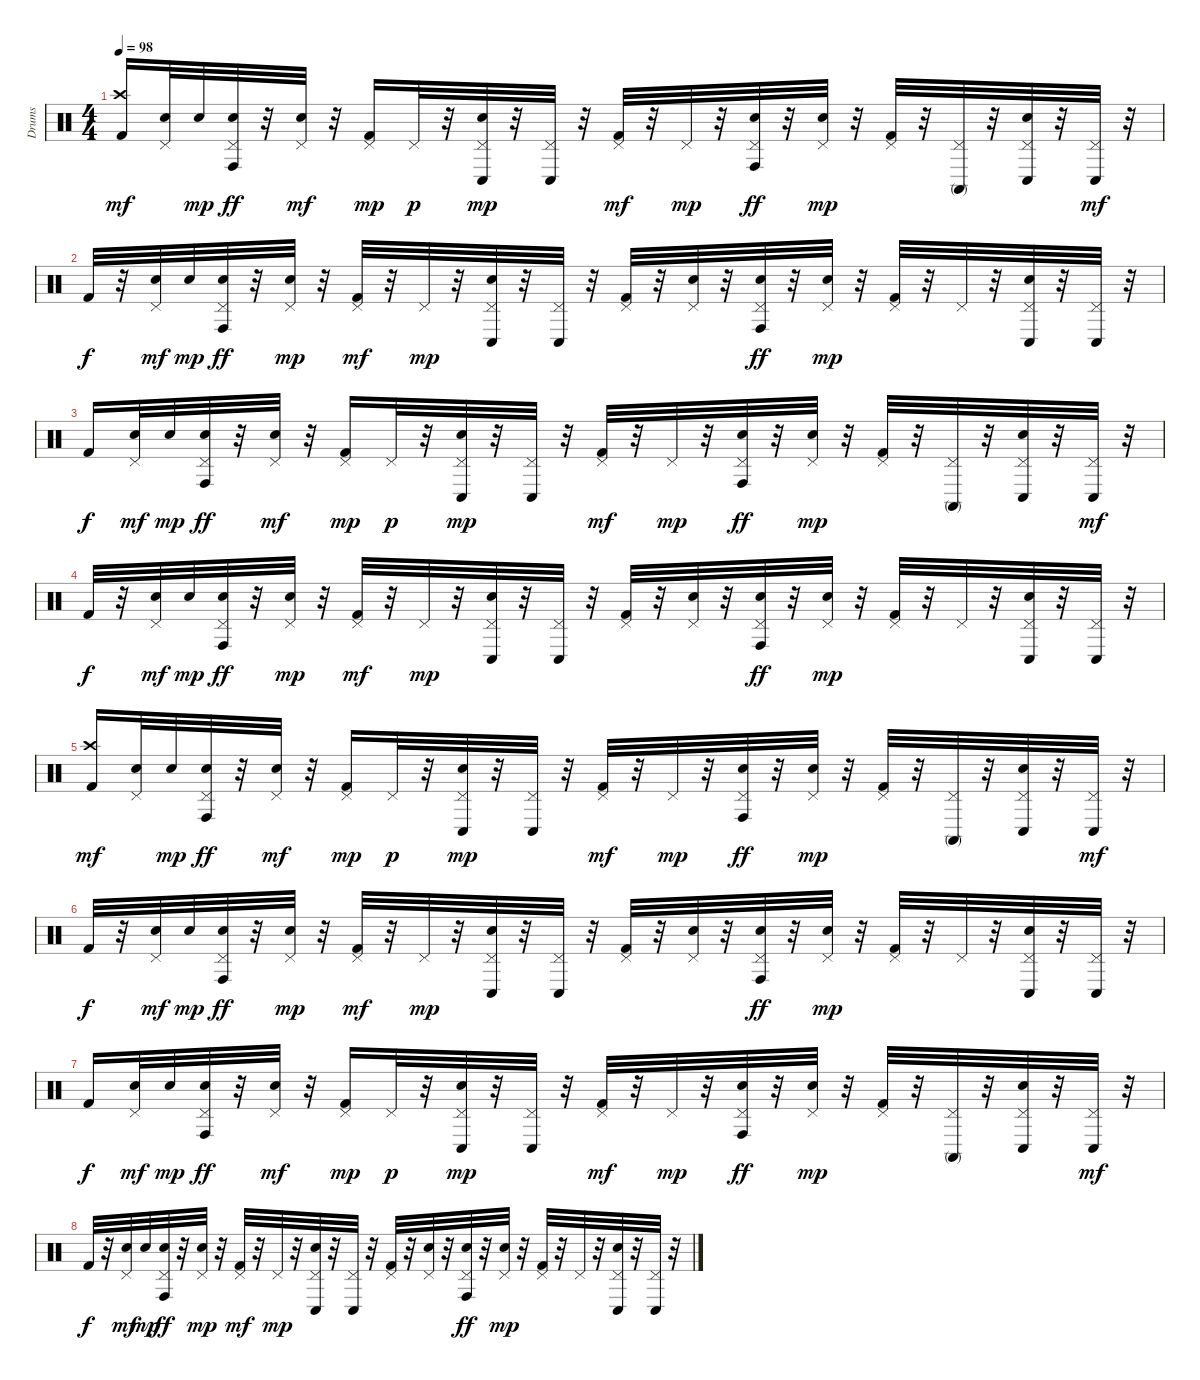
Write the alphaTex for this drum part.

\track ("Drums" "Drums") {instrument percussion}
\staff {score}
\articulation defaults
\ts (4 4)
\tempo 98
\clef neutral
\ks c
("Kick (hit) 2" "Crash high (hit)").16{dy mf} ("Electric Snare (hit)" "Pedal Hi-Hat (hit)").32 "Electric Snare (hit)".32{dy mp} ("Electric Snare (hit)" "Pedal Hi-Hat (hit)" "Conga high (hit)").32{dy ff} r.32 ("Electric Snare (hit)" "Pedal Hi-Hat (hit)").32{dy mf} r.32 ("Kick (hit) 2" "Pedal Hi-Hat (hit)").16{dy mp} "Pedal Hi-Hat (hit)".32{dy p} r.32 ("Electric Snare (hit)" "Pedal Hi-Hat (hit)" "Conga low (hit)").32{dy mp} r.32 ("Pedal Hi-Hat (hit)" "Conga low (hit)").32 r.32 ("Kick (hit) 2" "Pedal Hi-Hat (hit)").32{dy mf} r.32 "Pedal Hi-Hat (hit)".32{dy mp} r.32 ("Electric Snare (hit)" "Pedal Hi-Hat (hit)" "Conga high (hit)").32{dy ff} r.32 ("Electric Snare (hit)" "Pedal Hi-Hat (hit)").32{dy mp} r.32 ("Kick (hit) 2" "Pedal Hi-Hat (hit)").32 r.32 ("Pedal Hi-Hat (hit)" "Conga high (mute)").32 r.32 ("Electric Snare (hit)" "Pedal Hi-Hat (hit)" "Conga low (hit)").32 r.32 ("Pedal Hi-Hat (hit)" "Conga low (hit)").32{dy mf} r.32 |
"Kick (hit) 2".32{dy f} r.32 ("Electric Snare (hit)" "Pedal Hi-Hat (hit)").32{dy mf} "Electric Snare (hit)".32{dy mp} ("Electric Snare (hit)" "Pedal Hi-Hat (hit)" "Conga high (hit)").32{dy ff} r.32 ("Electric Snare (hit)" "Pedal Hi-Hat (hit)").32{dy mp} r.32 ("Kick (hit) 2" "Pedal Hi-Hat (hit)").32{dy mf} r.32 "Pedal Hi-Hat (hit)".32{dy mp} r.32 ("Electric Snare (hit)" "Pedal Hi-Hat (hit)" "Conga low (hit)").32 r.32 ("Pedal Hi-Hat (hit)" "Conga low (hit)").32 r.32 ("Kick (hit) 2" "Pedal Hi-Hat (hit)").32 r.32 ("Electric Snare (hit)" "Pedal Hi-Hat (hit)").32{volume 12} r.32 ("Electric Snare (hit)" "Pedal Hi-Hat (hit)" "Conga high (hit)").32{dy ff} r.32 ("Electric Snare (hit)" "Pedal Hi-Hat (hit)").32{dy mp} r.32 ("Kick (hit) 2" "Pedal Hi-Hat (hit)").32 r.32 "Pedal Hi-Hat (hit)".32 r.32 ("Electric Snare (hit)" "Pedal Hi-Hat (hit)" "Conga low (hit)").32 r.32 ("Pedal Hi-Hat (hit)" "Conga low (hit)").32 r.32 |
"Kick (hit) 2".16{dy f} ("Electric Snare (hit)" "Pedal Hi-Hat (hit)").32{dy mf} "Electric Snare (hit)".32{dy mp} ("Electric Snare (hit)" "Pedal Hi-Hat (hit)" "Conga high (hit)").32{dy ff} r.32 ("Electric Snare (hit)" "Pedal Hi-Hat (hit)").32{dy mf} r.32 ("Kick (hit) 2" "Pedal Hi-Hat (hit)").16{dy mp} "Pedal Hi-Hat (hit)".32{dy p} r.32 ("Electric Snare (hit)" "Pedal Hi-Hat (hit)" "Conga low (hit)").32{dy mp} r.32 ("Pedal Hi-Hat (hit)" "Conga low (hit)").32 r.32 ("Kick (hit) 2" "Pedal Hi-Hat (hit)").32{dy mf} r.32 "Pedal Hi-Hat (hit)".32{dy mp} r.32 ("Electric Snare (hit)" "Pedal Hi-Hat (hit)" "Conga high (hit)").32{dy ff} r.32 ("Electric Snare (hit)" "Pedal Hi-Hat (hit)").32{dy mp} r.32 ("Kick (hit) 2" "Pedal Hi-Hat (hit)").32 r.32 ("Pedal Hi-Hat (hit)" "Conga high (mute)").32 r.32 ("Electric Snare (hit)" "Pedal Hi-Hat (hit)" "Conga low (hit)").32 r.32 ("Pedal Hi-Hat (hit)" "Conga low (hit)").32{dy mf} r.32 |
"Kick (hit) 2".32{dy f} r.32 ("Electric Snare (hit)" "Pedal Hi-Hat (hit)").32{dy mf} "Electric Snare (hit)".32{dy mp} ("Electric Snare (hit)" "Pedal Hi-Hat (hit)" "Conga high (hit)").32{dy ff} r.32 ("Electric Snare (hit)" "Pedal Hi-Hat (hit)").32{dy mp} r.32 ("Kick (hit) 2" "Pedal Hi-Hat (hit)").32{dy mf} r.32 "Pedal Hi-Hat (hit)".32{dy mp} r.32 ("Electric Snare (hit)" "Pedal Hi-Hat (hit)" "Conga low (hit)").32 r.32 ("Pedal Hi-Hat (hit)" "Conga low (hit)").32 r.32 ("Kick (hit) 2" "Pedal Hi-Hat (hit)").32 r.32 ("Electric Snare (hit)" "Pedal Hi-Hat (hit)").32{volume 12} r.32 ("Electric Snare (hit)" "Pedal Hi-Hat (hit)" "Conga high (hit)").32{dy ff} r.32 ("Electric Snare (hit)" "Pedal Hi-Hat (hit)").32{dy mp} r.32 ("Kick (hit) 2" "Pedal Hi-Hat (hit)").32 r.32 "Pedal Hi-Hat (hit)".32 r.32 ("Electric Snare (hit)" "Pedal Hi-Hat (hit)" "Conga low (hit)").32 r.32 ("Pedal Hi-Hat (hit)" "Conga low (hit)").32 r.32 |
("Kick (hit) 2" "Crash high (hit)").16{dy mf} ("Electric Snare (hit)" "Pedal Hi-Hat (hit)").32 "Electric Snare (hit)".32{dy mp} ("Electric Snare (hit)" "Pedal Hi-Hat (hit)" "Conga high (hit)").32{dy ff} r.32 ("Electric Snare (hit)" "Pedal Hi-Hat (hit)").32{dy mf} r.32 ("Kick (hit) 2" "Pedal Hi-Hat (hit)").16{dy mp} "Pedal Hi-Hat (hit)".32{dy p} r.32 ("Electric Snare (hit)" "Pedal Hi-Hat (hit)" "Conga low (hit)").32{dy mp} r.32 ("Pedal Hi-Hat (hit)" "Conga low (hit)").32 r.32 ("Kick (hit) 2" "Pedal Hi-Hat (hit)").32{dy mf} r.32 "Pedal Hi-Hat (hit)".32{dy mp} r.32 ("Electric Snare (hit)" "Pedal Hi-Hat (hit)" "Conga high (hit)").32{dy ff} r.32 ("Electric Snare (hit)" "Pedal Hi-Hat (hit)").32{dy mp} r.32 ("Kick (hit) 2" "Pedal Hi-Hat (hit)").32 r.32 ("Pedal Hi-Hat (hit)" "Conga high (mute)").32 r.32 ("Electric Snare (hit)" "Pedal Hi-Hat (hit)" "Conga low (hit)").32 r.32 ("Pedal Hi-Hat (hit)" "Conga low (hit)").32{dy mf} r.32 |
"Kick (hit) 2".32{dy f} r.32 ("Electric Snare (hit)" "Pedal Hi-Hat (hit)").32{dy mf} "Electric Snare (hit)".32{dy mp} ("Electric Snare (hit)" "Pedal Hi-Hat (hit)" "Conga high (hit)").32{dy ff} r.32 ("Electric Snare (hit)" "Pedal Hi-Hat (hit)").32{dy mp} r.32 ("Kick (hit) 2" "Pedal Hi-Hat (hit)").32{dy mf} r.32 "Pedal Hi-Hat (hit)".32{dy mp} r.32 ("Electric Snare (hit)" "Pedal Hi-Hat (hit)" "Conga low (hit)").32 r.32 ("Pedal Hi-Hat (hit)" "Conga low (hit)").32 r.32 ("Kick (hit) 2" "Pedal Hi-Hat (hit)").32 r.32 ("Electric Snare (hit)" "Pedal Hi-Hat (hit)").32{volume 12} r.32 ("Electric Snare (hit)" "Pedal Hi-Hat (hit)" "Conga high (hit)").32{dy ff} r.32 ("Electric Snare (hit)" "Pedal Hi-Hat (hit)").32{dy mp} r.32 ("Kick (hit) 2" "Pedal Hi-Hat (hit)").32 r.32 "Pedal Hi-Hat (hit)".32 r.32 ("Electric Snare (hit)" "Pedal Hi-Hat (hit)" "Conga low (hit)").32 r.32 ("Pedal Hi-Hat (hit)" "Conga low (hit)").32 r.32 |
"Kick (hit) 2".16{dy f} ("Electric Snare (hit)" "Pedal Hi-Hat (hit)").32{dy mf} "Electric Snare (hit)".32{dy mp} ("Electric Snare (hit)" "Pedal Hi-Hat (hit)" "Conga high (hit)").32{dy ff} r.32 ("Electric Snare (hit)" "Pedal Hi-Hat (hit)").32{dy mf} r.32 ("Kick (hit) 2" "Pedal Hi-Hat (hit)").16{dy mp} "Pedal Hi-Hat (hit)".32{dy p} r.32 ("Electric Snare (hit)" "Pedal Hi-Hat (hit)" "Conga low (hit)").32{dy mp} r.32 ("Pedal Hi-Hat (hit)" "Conga low (hit)").32 r.32 ("Kick (hit) 2" "Pedal Hi-Hat (hit)").32{dy mf} r.32 "Pedal Hi-Hat (hit)".32{dy mp} r.32 ("Electric Snare (hit)" "Pedal Hi-Hat (hit)" "Conga high (hit)").32{dy ff} r.32 ("Electric Snare (hit)" "Pedal Hi-Hat (hit)").32{dy mp} r.32 ("Kick (hit) 2" "Pedal Hi-Hat (hit)").32 r.32 ("Pedal Hi-Hat (hit)" "Conga high (mute)").32 r.32 ("Electric Snare (hit)" "Pedal Hi-Hat (hit)" "Conga low (hit)").32 r.32 ("Pedal Hi-Hat (hit)" "Conga low (hit)").32{dy mf} r.32 |
"Kick (hit) 2".32{dy f} r.32 ("Electric Snare (hit)" "Pedal Hi-Hat (hit)").32{dy mf} "Electric Snare (hit)".32{dy mp} ("Electric Snare (hit)" "Pedal Hi-Hat (hit)" "Conga high (hit)").32{dy ff} r.32 ("Electric Snare (hit)" "Pedal Hi-Hat (hit)").32{dy mp} r.32 ("Kick (hit) 2" "Pedal Hi-Hat (hit)").32{dy mf} r.32 "Pedal Hi-Hat (hit)".32{dy mp} r.32 ("Electric Snare (hit)" "Pedal Hi-Hat (hit)" "Conga low (hit)").32 r.32 ("Pedal Hi-Hat (hit)" "Conga low (hit)").32 r.32 ("Kick (hit) 2" "Pedal Hi-Hat (hit)").32 r.32 ("Electric Snare (hit)" "Pedal Hi-Hat (hit)").32{volume 12} r.32 ("Electric Snare (hit)" "Pedal Hi-Hat (hit)" "Conga high (hit)").32{dy ff} r.32 ("Electric Snare (hit)" "Pedal Hi-Hat (hit)").32{dy mp} r.32 ("Kick (hit) 2" "Pedal Hi-Hat (hit)").32 r.32 "Pedal Hi-Hat (hit)".32 r.32 ("Electric Snare (hit)" "Pedal Hi-Hat (hit)" "Conga low (hit)").32 r.32 ("Pedal Hi-Hat (hit)" "Conga low (hit)").32 r.32
